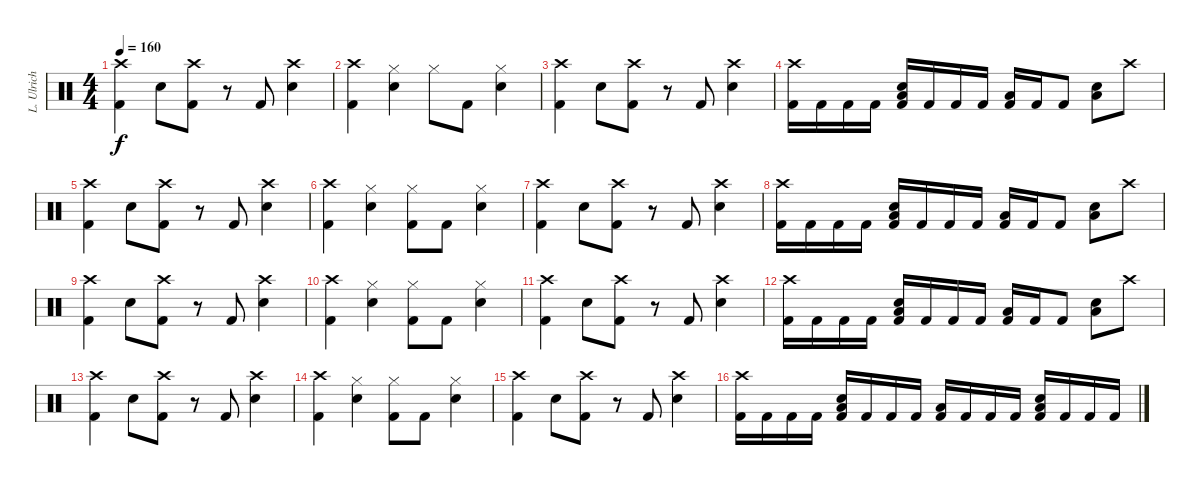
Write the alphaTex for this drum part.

\track ("L. Ulrich - Drums" "L. Ulrich ") {instrument percussion}
\staff {score}
\articulation defaults
\ts (4 4)
\tempo 160
\clef neutral
\ks c
("Crash high (hit)" "Kick (hit) 2").4{dy f} "Snare (hit) 2".8 ("Crash high (hit)" "Kick (hit) 2").8 r.8 "Kick (hit) 2".8 ("Crash high (hit)" "Snare (hit) 2").4 |
("Crash high (hit)" "Kick (hit) 2").4 ("Hi-Hat (closed)" "Snare (hit) 2").4 "Hi-Hat (closed)".8 "Kick (hit) 2".8 ("Hi-Hat (closed)" "Snare (hit) 2").4 |
("Crash high (hit)" "Kick (hit) 2").4 "Snare (hit) 2".8 ("Crash high (hit)" "Kick (hit) 2").8 r.8 "Kick (hit) 2".8 ("Crash high (hit)" "Snare (hit) 2").4 |
("Crash high (hit)" "Kick (hit) 2").16 "Kick (hit) 2".16 "Kick (hit) 2".16 "Kick (hit) 2".16 ("Snare (hit) 2" "Low Floor Tom (hit)" "Kick (hit) 2").16 "Kick (hit) 2".16 "Kick (hit) 2".16 "Kick (hit) 2".16 ("Low Floor Tom (hit)" "Kick (hit) 2").16 "Kick (hit) 2".16 "Kick (hit) 2".8 ("Snare (hit) 2" "Low Floor Tom (hit)").8 "Crash high (hit)".8 |
("Crash high (hit)" "Kick (hit) 2").4 "Snare (hit) 2".8 ("Crash high (hit)" "Kick (hit) 2").8 r.8 "Kick (hit) 2".8 ("Crash high (hit)" "Snare (hit) 2").4 |
("Crash high (hit)" "Kick (hit) 2").4 ("Hi-Hat (closed)" "Snare (hit) 2").4 ("Hi-Hat (closed)" "Kick (hit) 2").8 "Kick (hit) 2".8 ("Hi-Hat (closed)" "Snare (hit) 2").4 |
("Crash high (hit)" "Kick (hit) 2").4 "Snare (hit) 2".8 ("Crash high (hit)" "Kick (hit) 2").8 r.8 "Kick (hit) 2".8 ("Crash high (hit)" "Snare (hit) 2").4 |
("Crash high (hit)" "Kick (hit) 2").16 "Kick (hit) 2".16 "Kick (hit) 2".16 "Kick (hit) 2".16 ("Snare (hit) 2" "Low Floor Tom (hit)" "Kick (hit) 2").16 "Kick (hit) 2".16 "Kick (hit) 2".16 "Kick (hit) 2".16 ("Low Floor Tom (hit)" "Kick (hit) 2").16 "Kick (hit) 2".16 "Kick (hit) 2".8 ("Snare (hit) 2" "Low Floor Tom (hit)").8 "Crash high (hit)".8 |
("Crash high (hit)" "Kick (hit) 2").4 "Snare (hit) 2".8 ("Crash high (hit)" "Kick (hit) 2").8 r.8 "Kick (hit) 2".8 ("Crash high (hit)" "Snare (hit) 2").4 |
("Crash high (hit)" "Kick (hit) 2").4 ("Hi-Hat (closed)" "Snare (hit) 2").4 ("Hi-Hat (closed)" "Kick (hit) 2").8 "Kick (hit) 2".8 ("Hi-Hat (closed)" "Snare (hit) 2").4 |
("Crash high (hit)" "Kick (hit) 2").4 "Snare (hit) 2".8 ("Crash high (hit)" "Kick (hit) 2").8 r.8 "Kick (hit) 2".8 ("Crash high (hit)" "Snare (hit) 2").4 |
("Crash high (hit)" "Kick (hit) 2").16 "Kick (hit) 2".16 "Kick (hit) 2".16 "Kick (hit) 2".16 ("Snare (hit) 2" "Low Floor Tom (hit)" "Kick (hit) 2").16 "Kick (hit) 2".16 "Kick (hit) 2".16 "Kick (hit) 2".16 ("Low Floor Tom (hit)" "Kick (hit) 2").16 "Kick (hit) 2".16 "Kick (hit) 2".8 ("Snare (hit) 2" "Low Floor Tom (hit)").8 "Crash high (hit)".8 |
("Crash high (hit)" "Kick (hit) 2").4 "Snare (hit) 2".8 ("Crash high (hit)" "Kick (hit) 2").8 r.8 "Kick (hit) 2".8 ("Crash high (hit)" "Snare (hit) 2").4 |
("Crash high (hit)" "Kick (hit) 2").4 ("Hi-Hat (closed)" "Snare (hit) 2").4 ("Hi-Hat (closed)" "Kick (hit) 2").8 "Kick (hit) 2".8 ("Hi-Hat (closed)" "Snare (hit) 2").4 |
("Crash high (hit)" "Kick (hit) 2").4 "Snare (hit) 2".8 ("Crash high (hit)" "Kick (hit) 2").8 r.8 "Kick (hit) 2".8 ("Crash high (hit)" "Snare (hit) 2").4 |
("Crash high (hit)" "Kick (hit) 2").16 "Kick (hit) 2".16 "Kick (hit) 2".16 "Kick (hit) 2".16 ("Snare (hit) 2" "Low Floor Tom (hit)" "Kick (hit) 2").16 "Kick (hit) 2".16 "Kick (hit) 2".16 "Kick (hit) 2".16 ("Low Floor Tom (hit)" "Kick (hit) 2").16 "Kick (hit) 2".16 "Kick (hit) 2".16 "Kick (hit) 2".16 ("Snare (hit) 2" "Low Floor Tom (hit)" "Kick (hit) 2").16 "Kick (hit) 2".16 "Kick (hit) 2".16 "Kick (hit) 2".16
